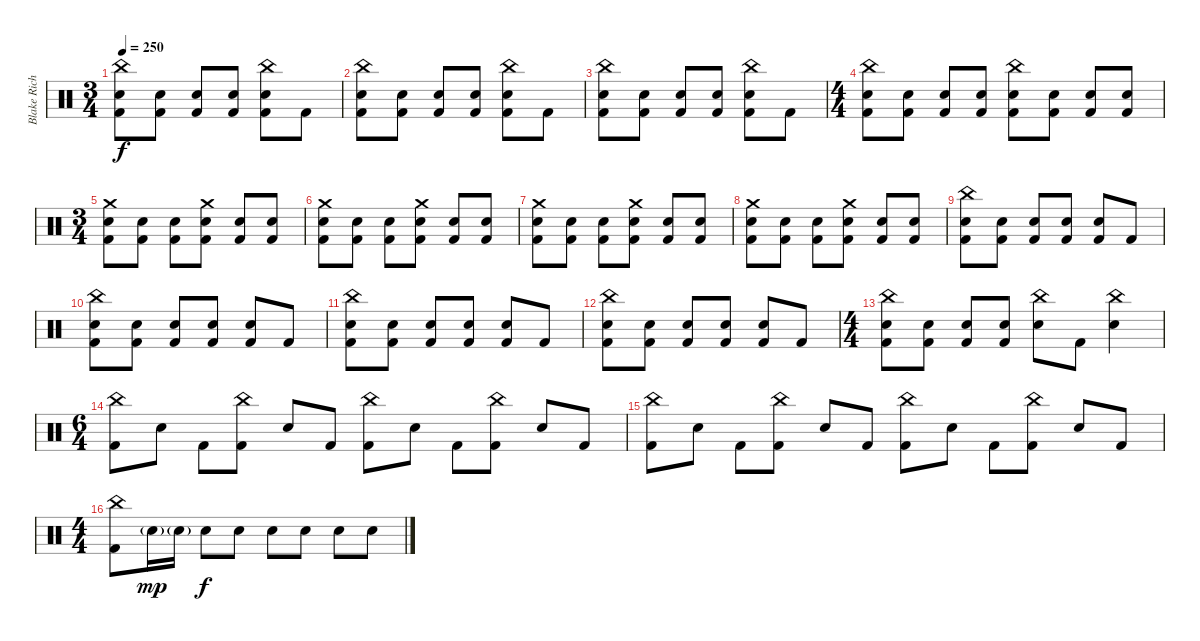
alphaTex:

\track ("Blake Richardson - Drums" "Blake Rich") {instrument percussion}
\staff {score}
\articulation defaults
\ts (3 4)
\tempo 250
\clef neutral
\ks c
("China (hit)" "Electric Snare (hit)" "Kick (hit) 2").8{dy f} ("Electric Snare (hit)" "Kick (hit) 2").8 ("Electric Snare (hit)" "Kick (hit) 2").8 ("Electric Snare (hit)" "Kick (hit) 2").8 ("China (hit)" "Electric Snare (hit)" "Kick (hit) 2").8 "Kick (hit) 2".8 |
("China (hit)" "Electric Snare (hit)" "Kick (hit) 2").8 ("Electric Snare (hit)" "Kick (hit) 2").8 ("Electric Snare (hit)" "Kick (hit) 2").8 ("Electric Snare (hit)" "Kick (hit) 2").8 ("China (hit)" "Electric Snare (hit)" "Kick (hit) 2").8 "Kick (hit) 2".8 |
("China (hit)" "Electric Snare (hit)" "Kick (hit) 2").8 ("Electric Snare (hit)" "Kick (hit) 2").8 ("Electric Snare (hit)" "Kick (hit) 2").8 ("Electric Snare (hit)" "Kick (hit) 2").8 ("China (hit)" "Electric Snare (hit)" "Kick (hit) 2").8 "Kick (hit) 2".8 |
\ts (4 4)
("China (hit)" "Electric Snare (hit)" "Kick (hit) 2").8 ("Electric Snare (hit)" "Kick (hit) 2").8 ("Electric Snare (hit)" "Kick (hit) 2").8 ("Electric Snare (hit)" "Kick (hit) 2").8 ("China (hit)" "Electric Snare (hit)" "Kick (hit) 2").8 ("Electric Snare (hit)" "Kick (hit) 2").8 ("Electric Snare (hit)" "Kick (hit) 2").8 ("Electric Snare (hit)" "Kick (hit) 2").8 |
\ts (3 4)
("Crash medium (hit)" "Electric Snare (hit)" "Kick (hit) 2").8 ("Electric Snare (hit)" "Kick (hit) 2").8 ("Electric Snare (hit)" "Kick (hit) 2").8 ("Crash medium (hit)" "Electric Snare (hit)" "Kick (hit) 2").8 ("Electric Snare (hit)" "Kick (hit) 2").8 ("Electric Snare (hit)" "Kick (hit) 2").8 |
("Crash medium (hit)" "Electric Snare (hit)" "Kick (hit) 2").8 ("Electric Snare (hit)" "Kick (hit) 2").8 ("Electric Snare (hit)" "Kick (hit) 2").8 ("Crash medium (hit)" "Electric Snare (hit)" "Kick (hit) 2").8 ("Electric Snare (hit)" "Kick (hit) 2").8 ("Electric Snare (hit)" "Kick (hit) 2").8 |
("Crash medium (hit)" "Electric Snare (hit)" "Kick (hit) 2").8 ("Electric Snare (hit)" "Kick (hit) 2").8 ("Electric Snare (hit)" "Kick (hit) 2").8 ("Crash medium (hit)" "Electric Snare (hit)" "Kick (hit) 2").8 ("Electric Snare (hit)" "Kick (hit) 2").8 ("Electric Snare (hit)" "Kick (hit) 2").8 |
("Crash medium (hit)" "Electric Snare (hit)" "Kick (hit) 2").8 ("Electric Snare (hit)" "Kick (hit) 2").8 ("Electric Snare (hit)" "Kick (hit) 2").8 ("Crash medium (hit)" "Electric Snare (hit)" "Kick (hit) 2").8 ("Electric Snare (hit)" "Kick (hit) 2").8 ("Electric Snare (hit)" "Kick (hit) 2").8 |
("China (hit)" "Electric Snare (hit)" "Kick (hit) 2").8 ("Electric Snare (hit)" "Kick (hit) 2").8 ("Electric Snare (hit)" "Kick (hit) 2").8 ("Electric Snare (hit)" "Kick (hit) 2").8 ("Electric Snare (hit)" "Kick (hit) 2").8 "Kick (hit) 2".8 |
("China (hit)" "Electric Snare (hit)" "Kick (hit) 2").8 ("Electric Snare (hit)" "Kick (hit) 2").8 ("Electric Snare (hit)" "Kick (hit) 2").8 ("Electric Snare (hit)" "Kick (hit) 2").8 ("Electric Snare (hit)" "Kick (hit) 2").8 "Kick (hit) 2".8 |
("China (hit)" "Electric Snare (hit)" "Kick (hit) 2").8 ("Electric Snare (hit)" "Kick (hit) 2").8 ("Electric Snare (hit)" "Kick (hit) 2").8 ("Electric Snare (hit)" "Kick (hit) 2").8 ("Electric Snare (hit)" "Kick (hit) 2").8 "Kick (hit) 2".8 |
("China (hit)" "Electric Snare (hit)" "Kick (hit) 2").8 ("Electric Snare (hit)" "Kick (hit) 2").8 ("Electric Snare (hit)" "Kick (hit) 2").8 ("Electric Snare (hit)" "Kick (hit) 2").8 ("Electric Snare (hit)" "Kick (hit) 2").8 "Kick (hit) 2".8 |
\ts (4 4)
("China (hit)" "Electric Snare (hit)" "Kick (hit) 2").8 ("Electric Snare (hit)" "Kick (hit) 2").8 ("Electric Snare (hit)" "Kick (hit) 2").8 ("Electric Snare (hit)" "Kick (hit) 2").8 ("China (hit)" "Electric Snare (hit)").8 "Kick (hit) 2".8 ("China (hit)" "Electric Snare (hit)").4 |
\ts (6 4)
("China (hit)" "Kick (hit) 2").8 "Electric Snare (hit)".8 "Kick (hit) 2".8 ("China (hit)" "Kick (hit) 2").8 "Electric Snare (hit)".8 "Kick (hit) 2".8 ("China (hit)" "Kick (hit) 2").8 "Electric Snare (hit)".8 "Kick (hit) 2".8 ("China (hit)" "Kick (hit) 2").8 "Electric Snare (hit)".8 "Kick (hit) 2".8 |
("China (hit)" "Kick (hit) 2").8 "Electric Snare (hit)".8 "Kick (hit) 2".8 ("China (hit)" "Kick (hit) 2").8 "Electric Snare (hit)".8 "Kick (hit) 2".8 ("China (hit)" "Kick (hit) 2").8 "Electric Snare (hit)".8 "Kick (hit) 2".8 ("China (hit)" "Kick (hit) 2").8 "Electric Snare (hit)".8 "Kick (hit) 2".8 |
\ts (4 4)
("China (hit)" "Kick (hit) 2").8 "Electric Snare (hit)"{g}.16{dy mp} "Electric Snare (hit)"{g}.16 "Electric Snare (hit)".8{dy f} "Electric Snare (hit)".8 "Electric Snare (hit)".8 "Electric Snare (hit)".8 "Electric Snare (hit)".8 "Electric Snare (hit)".8
